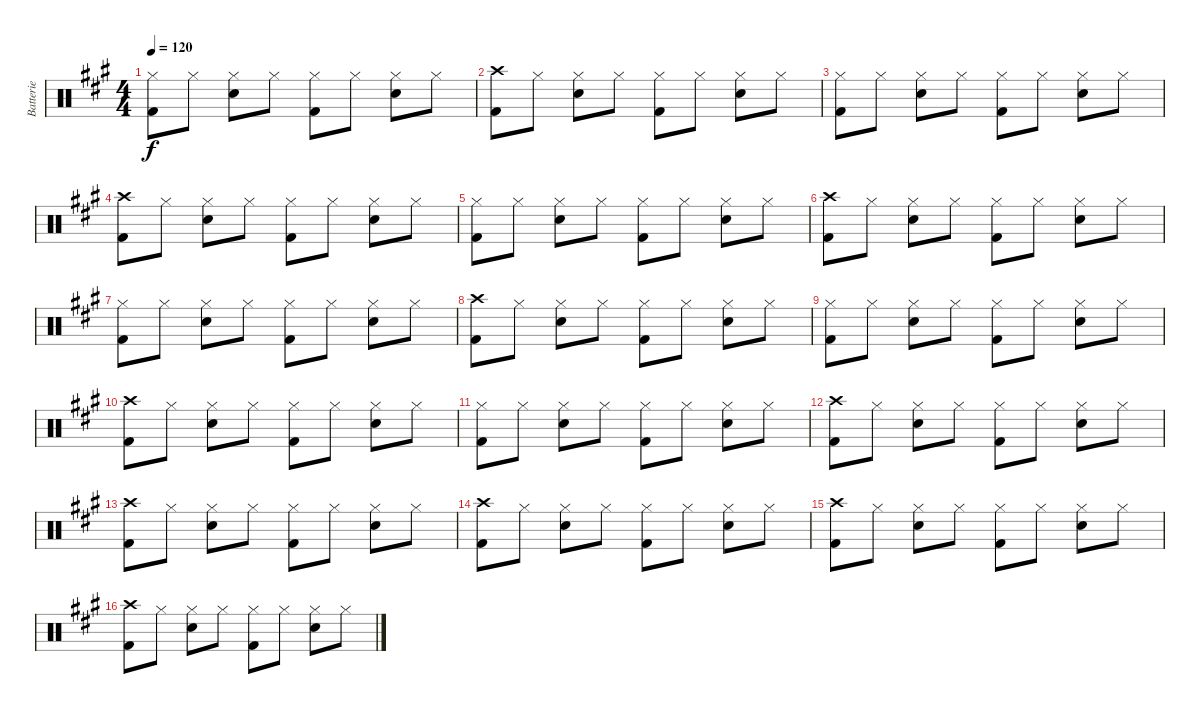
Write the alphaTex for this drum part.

\track ("Batterie" "Batterie") {instrument percussion}
\staff {score}
\articulation defaults
\ts (4 4)
\tempo 120
\clef neutral
\ks a
("Hi-Hat (closed)" "Kick (hit) 2").8{dy f} "Hi-Hat (closed)".8 ("Hi-Hat (closed)" "Snare (hit) 2").8 "Hi-Hat (closed)".8 ("Hi-Hat (closed)" "Kick (hit) 2").8 "Hi-Hat (closed)".8 ("Hi-Hat (closed)" "Snare (hit) 2").8 "Hi-Hat (closed)".8 |
("Crash high (hit)" "Kick (hit) 2").8 "Hi-Hat (closed)".8 ("Hi-Hat (closed)" "Snare (hit) 2").8 "Hi-Hat (closed)".8 ("Hi-Hat (closed)" "Kick (hit) 2").8 "Hi-Hat (closed)".8 ("Hi-Hat (closed)" "Snare (hit) 2").8 "Hi-Hat (closed)".8 |
("Hi-Hat (closed)" "Kick (hit) 2").8 "Hi-Hat (closed)".8 ("Hi-Hat (closed)" "Snare (hit) 2").8 "Hi-Hat (closed)".8 ("Hi-Hat (closed)" "Kick (hit) 2").8 "Hi-Hat (closed)".8 ("Hi-Hat (closed)" "Snare (hit) 2").8 "Hi-Hat (closed)".8 |
("Crash high (hit)" "Kick (hit) 2").8 "Hi-Hat (closed)".8 ("Hi-Hat (closed)" "Snare (hit) 2").8 "Hi-Hat (closed)".8 ("Hi-Hat (closed)" "Kick (hit) 2").8 "Hi-Hat (closed)".8 ("Hi-Hat (closed)" "Snare (hit) 2").8 "Hi-Hat (closed)".8 |
("Hi-Hat (closed)" "Kick (hit) 2").8 "Hi-Hat (closed)".8 ("Hi-Hat (closed)" "Snare (hit) 2").8 "Hi-Hat (closed)".8 ("Hi-Hat (closed)" "Kick (hit) 2").8 "Hi-Hat (closed)".8 ("Hi-Hat (closed)" "Snare (hit) 2").8 "Hi-Hat (closed)".8 |
("Crash high (hit)" "Kick (hit) 2").8 "Hi-Hat (closed)".8 ("Hi-Hat (closed)" "Snare (hit) 2").8 "Hi-Hat (closed)".8 ("Hi-Hat (closed)" "Kick (hit) 2").8 "Hi-Hat (closed)".8 ("Hi-Hat (closed)" "Snare (hit) 2").8 "Hi-Hat (closed)".8 |
("Hi-Hat (closed)" "Kick (hit) 2").8 "Hi-Hat (closed)".8 ("Hi-Hat (closed)" "Snare (hit) 2").8 "Hi-Hat (closed)".8 ("Hi-Hat (closed)" "Kick (hit) 2").8 "Hi-Hat (closed)".8 ("Hi-Hat (closed)" "Snare (hit) 2").8 "Hi-Hat (closed)".8 |
("Crash high (hit)" "Kick (hit) 2").8 "Hi-Hat (closed)".8 ("Hi-Hat (closed)" "Snare (hit) 2").8 "Hi-Hat (closed)".8 ("Hi-Hat (closed)" "Kick (hit) 2").8 "Hi-Hat (closed)".8 ("Hi-Hat (closed)" "Snare (hit) 2").8 "Hi-Hat (closed)".8 |
("Hi-Hat (closed)" "Kick (hit) 2").8 "Hi-Hat (closed)".8 ("Hi-Hat (closed)" "Snare (hit) 2").8 "Hi-Hat (closed)".8 ("Hi-Hat (closed)" "Kick (hit) 2").8 "Hi-Hat (closed)".8 ("Hi-Hat (closed)" "Snare (hit) 2").8 "Hi-Hat (closed)".8 |
("Crash high (hit)" "Kick (hit) 2").8 "Hi-Hat (closed)".8 ("Hi-Hat (closed)" "Snare (hit) 2").8 "Hi-Hat (closed)".8 ("Hi-Hat (closed)" "Kick (hit) 2").8 "Hi-Hat (closed)".8 ("Hi-Hat (closed)" "Snare (hit) 2").8 "Hi-Hat (closed)".8 |
("Hi-Hat (closed)" "Kick (hit) 2").8 "Hi-Hat (closed)".8 ("Hi-Hat (closed)" "Snare (hit) 2").8 "Hi-Hat (closed)".8 ("Hi-Hat (closed)" "Kick (hit) 2").8 "Hi-Hat (closed)".8 ("Hi-Hat (closed)" "Snare (hit) 2").8 "Hi-Hat (closed)".8 |
("Crash high (hit)" "Kick (hit) 2").8 "Hi-Hat (closed)".8 ("Hi-Hat (closed)" "Snare (hit) 2").8 "Hi-Hat (closed)".8 ("Hi-Hat (closed)" "Kick (hit) 2").8 "Hi-Hat (closed)".8 ("Hi-Hat (closed)" "Snare (hit) 2").8 "Hi-Hat (closed)".8 |
("Crash high (hit)" "Kick (hit) 2").8 "Hi-Hat (closed)".8 ("Hi-Hat (closed)" "Snare (hit) 2").8 "Hi-Hat (closed)".8 ("Hi-Hat (closed)" "Kick (hit) 2").8 "Hi-Hat (closed)".8 ("Hi-Hat (closed)" "Snare (hit) 2").8 "Hi-Hat (closed)".8 |
("Crash high (hit)" "Kick (hit) 2").8 "Hi-Hat (closed)".8 ("Hi-Hat (closed)" "Snare (hit) 2").8 "Hi-Hat (closed)".8 ("Hi-Hat (closed)" "Kick (hit) 2").8 "Hi-Hat (closed)".8 ("Hi-Hat (closed)" "Snare (hit) 2").8 "Hi-Hat (closed)".8 |
("Crash high (hit)" "Kick (hit) 2").8 "Hi-Hat (closed)".8 ("Hi-Hat (closed)" "Snare (hit) 2").8 "Hi-Hat (closed)".8 ("Hi-Hat (closed)" "Kick (hit) 2").8 "Hi-Hat (closed)".8 ("Hi-Hat (closed)" "Snare (hit) 2").8 "Hi-Hat (closed)".8 |
("Crash high (hit)" "Kick (hit) 2").8 "Hi-Hat (closed)".8 ("Hi-Hat (closed)" "Snare (hit) 2").8 "Hi-Hat (closed)".8 ("Hi-Hat (closed)" "Kick (hit) 2").8 "Hi-Hat (closed)".8 ("Hi-Hat (closed)" "Snare (hit) 2").8 "Hi-Hat (closed)".8
